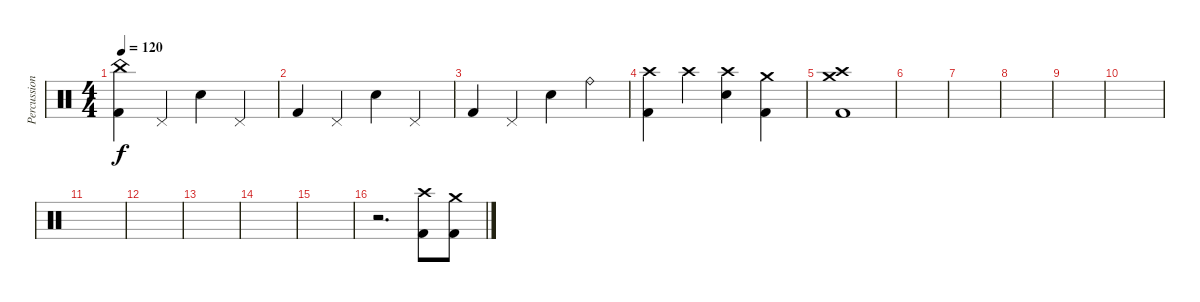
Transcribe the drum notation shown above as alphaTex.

\track ("Percussion" "Percussion") {instrument percussion}
\staff {score}
\articulation defaults
\ts (4 4)
\tempo 120
\clef neutral
\ks c
("China (hit)" "Kick (hit) 2").4{dy f} "Pedal Hi-Hat (hit)".4 "Electric Snare (hit)".4 "Pedal Hi-Hat (hit)".4 |
"Kick (hit) 2".4 "Pedal Hi-Hat (hit)".4 "Electric Snare (hit)".4 "Pedal Hi-Hat (hit)".4 |
"Kick (hit) 2".4 "Pedal Hi-Hat (hit)".4 "Electric Snare (hit)".4 "Ride (bell)".4 |
("Crash high (hit)" "Kick (hit) 2").4 "Crash high (hit)".4 ("Crash high (hit)" "Electric Snare (hit)").4 ("Crash medium (hit)" "Kick (hit) 2").4 |
("Crash medium (hit)" "Crash high (hit)" "Kick (hit) 2").1 |
|
|
|
|
|
|
|
|
|
|
r.2{d} ("Crash high (hit)" "Kick (hit) 2").8 ("Crash medium (hit)" "Kick (hit) 2").8
